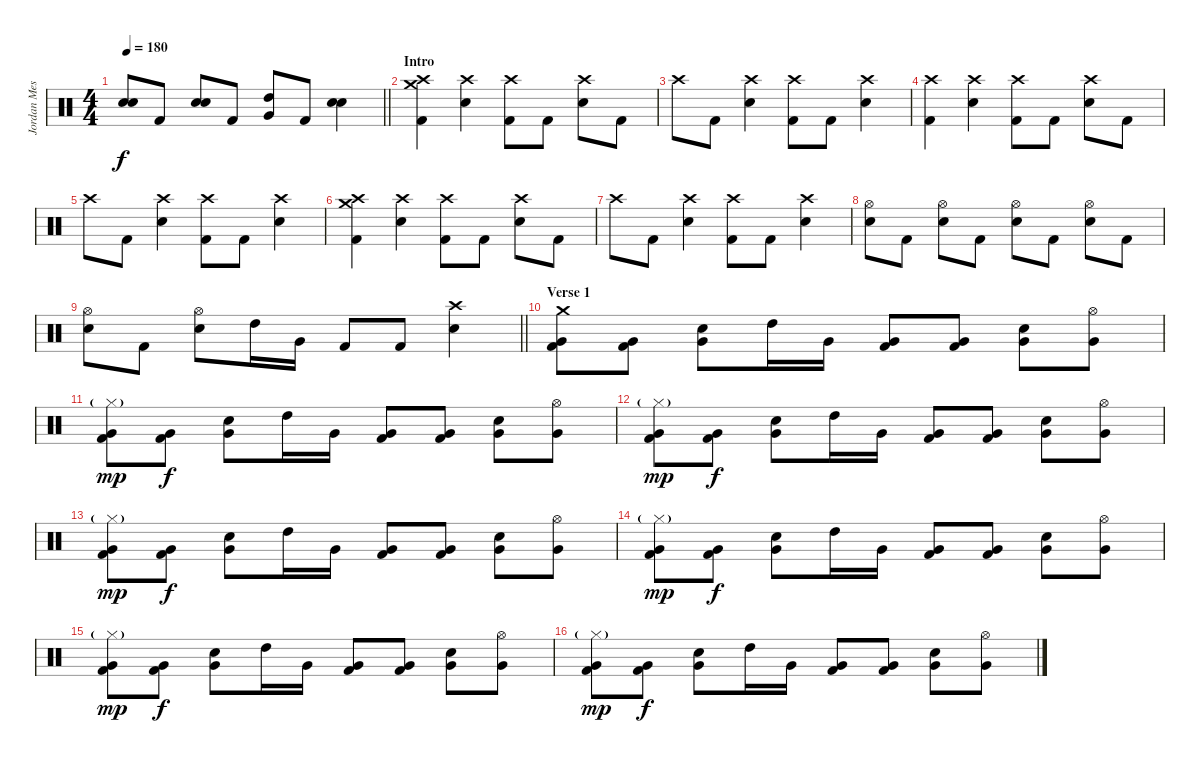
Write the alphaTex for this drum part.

\track ("Jordan Messer " "Jordan Mes") {instrument percussion}
\staff {score}
\articulation defaults
\ts (4 4)
\tempo 180
\clef neutral
\barLineRight lightlight
\ks c
("Snare (hit) 2" "Snare (hit) 2").8{bd 120 dy f} "Kick (hit) 2".8 ("Snare (hit) 2" "Snare (hit) 2").8{bd 120} "Kick (hit) 2".8 ("High Tom (hit)" "Very Low Tom (hit)").8 "Kick (hit) 2".8 ("Snare (hit) 2" "Snare (hit) 2").4{bd 120} |
\section ("" "Intro")
("Crash medium (hit)" "Crash high (hit)" "Kick (hit) 2").4 ("Crash high (hit)" "Snare (hit) 2").4 ("Crash high (hit)" "Kick (hit) 2").8 "Kick (hit) 2".8 ("Crash high (hit)" "Snare (hit) 2").8 "Kick (hit) 2".8 |
"Crash high (hit)".8 "Kick (hit) 2".8 ("Crash high (hit)" "Snare (hit) 2").4 ("Crash high (hit)" "Kick (hit) 2").8 "Kick (hit) 2".8 ("Crash high (hit)" "Snare (hit) 2").4 |
("Crash high (hit)" "Kick (hit) 2").4 ("Crash high (hit)" "Snare (hit) 2").4 ("Crash high (hit)" "Kick (hit) 2").8 "Kick (hit) 2".8 ("Crash high (hit)" "Snare (hit) 2").8 "Kick (hit) 2".8 |
"Crash high (hit)".8 "Kick (hit) 2".8 ("Crash high (hit)" "Snare (hit) 2").4 ("Crash high (hit)" "Kick (hit) 2").8 "Kick (hit) 2".8 ("Crash high (hit)" "Snare (hit) 2").4 |
("Crash medium (hit)" "Crash high (hit)" "Kick (hit) 2").4 ("Crash high (hit)" "Snare (hit) 2").4 ("Crash high (hit)" "Kick (hit) 2").8 "Kick (hit) 2".8 ("Crash high (hit)" "Snare (hit) 2").8 "Kick (hit) 2".8 |
"Crash high (hit)".8 "Kick (hit) 2".8 ("Crash high (hit)" "Snare (hit) 2").4 ("Crash high (hit)" "Kick (hit) 2").8 "Kick (hit) 2".8 ("Crash high (hit)" "Snare (hit) 2").4 |
("Hi-Hat (open)" "Snare (hit) 2").8 "Kick (hit) 2".8 ("Hi-Hat (open)" "Snare (hit) 2").8 "Kick (hit) 2".8 ("Hi-Hat (open)" "Snare (hit) 2").8 "Kick (hit) 2".8 ("Hi-Hat (open)" "Snare (hit) 2").8 "Kick (hit) 2".8 |
\barLineRight lightlight
("Hi-Hat (open)" "Snare (hit) 2").8 "Kick (hit) 2".8 ("Hi-Hat (open)" "Snare (hit) 2").8 "High Tom (hit)".16 "Very Low Tom (hit)".16 "Kick (hit) 2".8 "Kick (hit) 2".8 ("Crash high (hit)" "Snare (hit) 2").4 |
\section ("" "Verse 1")
("Crash medium (hit)" "Very Low Tom (hit)" "Kick (hit) 2").8 ("Very Low Tom (hit)" "Kick (hit) 2").8 ("Snare (hit) 2" "Very Low Tom (hit)").8 "High Tom (hit)".16 "Very Low Tom (hit)".16 ("Very Low Tom (hit)" "Kick (hit) 2").8 ("Very Low Tom (hit)" "Kick (hit) 2").8 ("Snare (hit) 2" "Very Low Tom (hit)").8 ("Hi-Hat (open)" "Very Low Tom (hit)").8 |
("Hi-Hat (closed)"{g} "Very Low Tom (hit)" "Kick (hit) 2").8{dy mp} ("Very Low Tom (hit)" "Kick (hit) 2").8{dy f} ("Snare (hit) 2" "Very Low Tom (hit)").8 "High Tom (hit)".16 "Very Low Tom (hit)".16 ("Very Low Tom (hit)" "Kick (hit) 2").8 ("Very Low Tom (hit)" "Kick (hit) 2").8 ("Snare (hit) 2" "Very Low Tom (hit)").8 ("Hi-Hat (open)" "Very Low Tom (hit)").8 |
("Hi-Hat (closed)"{g} "Very Low Tom (hit)" "Kick (hit) 2").8{dy mp} ("Very Low Tom (hit)" "Kick (hit) 2").8{dy f} ("Snare (hit) 2" "Very Low Tom (hit)").8 "High Tom (hit)".16 "Very Low Tom (hit)".16 ("Very Low Tom (hit)" "Kick (hit) 2").8 ("Very Low Tom (hit)" "Kick (hit) 2").8 ("Snare (hit) 2" "Very Low Tom (hit)").8 ("Hi-Hat (open)" "Very Low Tom (hit)").8 |
("Hi-Hat (closed)"{g} "Very Low Tom (hit)" "Kick (hit) 2").8{dy mp} ("Very Low Tom (hit)" "Kick (hit) 2").8{dy f} ("Snare (hit) 2" "Very Low Tom (hit)").8 "High Tom (hit)".16 "Very Low Tom (hit)".16 ("Very Low Tom (hit)" "Kick (hit) 2").8 ("Very Low Tom (hit)" "Kick (hit) 2").8 ("Snare (hit) 2" "Very Low Tom (hit)").8 ("Hi-Hat (open)" "Very Low Tom (hit)").8 |
("Hi-Hat (closed)"{g} "Very Low Tom (hit)" "Kick (hit) 2").8{dy mp} ("Very Low Tom (hit)" "Kick (hit) 2").8{dy f} ("Snare (hit) 2" "Very Low Tom (hit)").8 "High Tom (hit)".16 "Very Low Tom (hit)".16 ("Very Low Tom (hit)" "Kick (hit) 2").8 ("Very Low Tom (hit)" "Kick (hit) 2").8 ("Snare (hit) 2" "Very Low Tom (hit)").8 ("Hi-Hat (open)" "Very Low Tom (hit)").8 |
("Hi-Hat (closed)"{g} "Very Low Tom (hit)" "Kick (hit) 2").8{dy mp} ("Very Low Tom (hit)" "Kick (hit) 2").8{dy f} ("Snare (hit) 2" "Very Low Tom (hit)").8 "High Tom (hit)".16 "Very Low Tom (hit)".16 ("Very Low Tom (hit)" "Kick (hit) 2").8 ("Very Low Tom (hit)" "Kick (hit) 2").8 ("Snare (hit) 2" "Very Low Tom (hit)").8 ("Hi-Hat (open)" "Very Low Tom (hit)").8 |
("Hi-Hat (closed)"{g} "Very Low Tom (hit)" "Kick (hit) 2").8{dy mp} ("Very Low Tom (hit)" "Kick (hit) 2").8{dy f} ("Snare (hit) 2" "Very Low Tom (hit)").8 "High Tom (hit)".16 "Very Low Tom (hit)".16 ("Very Low Tom (hit)" "Kick (hit) 2").8 ("Very Low Tom (hit)" "Kick (hit) 2").8 ("Snare (hit) 2" "Very Low Tom (hit)").8 ("Hi-Hat (open)" "Very Low Tom (hit)").8
